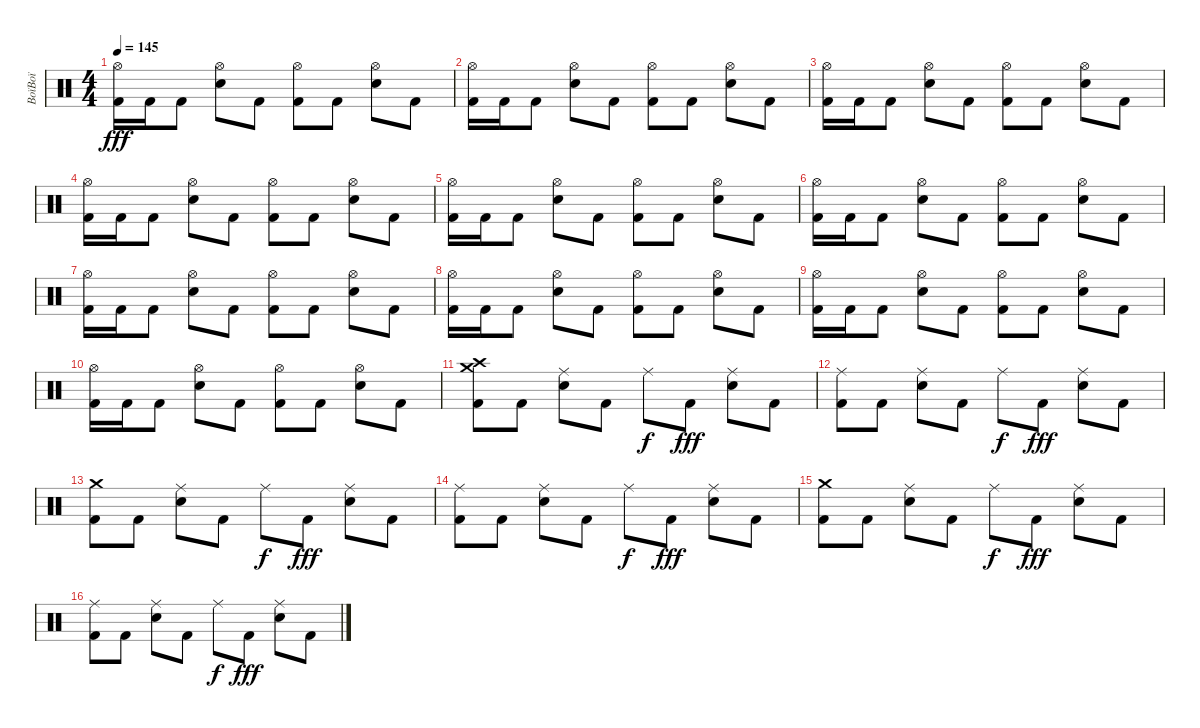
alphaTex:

\track ("BoïBoï" "BoïBoï") {instrument percussion}
\staff {score}
\articulation defaults
\ts (4 4)
\tempo 145
\clef neutral
\ks c
("Hi-Hat (open)" "Kick (hit) 2").16{dy fff} "Kick (hit) 2".16 "Kick (hit) 2".8 ("Hi-Hat (open)" "Electric Snare (hit)").8 "Kick (hit) 2".8 ("Hi-Hat (open)" "Kick (hit) 2").8 "Kick (hit) 2".8 ("Hi-Hat (open)" "Electric Snare (hit)").8 "Kick (hit) 2".8 |
("Hi-Hat (open)" "Kick (hit) 2").16 "Kick (hit) 2".16 "Kick (hit) 2".8 ("Hi-Hat (open)" "Electric Snare (hit)").8 "Kick (hit) 2".8 ("Hi-Hat (open)" "Kick (hit) 2").8 "Kick (hit) 2".8 ("Hi-Hat (open)" "Electric Snare (hit)").8 "Kick (hit) 2".8 |
("Hi-Hat (open)" "Kick (hit) 2").16 "Kick (hit) 2".16 "Kick (hit) 2".8 ("Hi-Hat (open)" "Electric Snare (hit)").8 "Kick (hit) 2".8 ("Hi-Hat (open)" "Kick (hit) 2").8 "Kick (hit) 2".8 ("Hi-Hat (open)" "Electric Snare (hit)").8 "Kick (hit) 2".8 |
("Hi-Hat (open)" "Kick (hit) 2").16 "Kick (hit) 2".16 "Kick (hit) 2".8 ("Hi-Hat (open)" "Electric Snare (hit)").8 "Kick (hit) 2".8 ("Hi-Hat (open)" "Kick (hit) 2").8 "Kick (hit) 2".8 ("Hi-Hat (open)" "Electric Snare (hit)").8 "Kick (hit) 2".8 |
("Hi-Hat (open)" "Kick (hit) 2").16 "Kick (hit) 2".16 "Kick (hit) 2".8 ("Hi-Hat (open)" "Electric Snare (hit)").8 "Kick (hit) 2".8 ("Hi-Hat (open)" "Kick (hit) 2").8 "Kick (hit) 2".8 ("Hi-Hat (open)" "Electric Snare (hit)").8 "Kick (hit) 2".8 |
("Hi-Hat (open)" "Kick (hit) 2").16 "Kick (hit) 2".16 "Kick (hit) 2".8 ("Hi-Hat (open)" "Electric Snare (hit)").8 "Kick (hit) 2".8 ("Hi-Hat (open)" "Kick (hit) 2").8 "Kick (hit) 2".8 ("Hi-Hat (open)" "Electric Snare (hit)").8 "Kick (hit) 2".8 |
("Hi-Hat (open)" "Kick (hit) 2").16 "Kick (hit) 2".16 "Kick (hit) 2".8 ("Hi-Hat (open)" "Electric Snare (hit)").8 "Kick (hit) 2".8 ("Hi-Hat (open)" "Kick (hit) 2").8 "Kick (hit) 2".8 ("Hi-Hat (open)" "Electric Snare (hit)").8 "Kick (hit) 2".8 |
("Hi-Hat (open)" "Kick (hit) 2").16 "Kick (hit) 2".16 "Kick (hit) 2".8 ("Hi-Hat (open)" "Electric Snare (hit)").8 "Kick (hit) 2".8 ("Hi-Hat (open)" "Kick (hit) 2").8 "Kick (hit) 2".8 ("Hi-Hat (open)" "Electric Snare (hit)").8 "Kick (hit) 2".8 |
("Hi-Hat (open)" "Kick (hit) 2").16 "Kick (hit) 2".16 "Kick (hit) 2".8 ("Hi-Hat (open)" "Electric Snare (hit)").8 "Kick (hit) 2".8 ("Hi-Hat (open)" "Kick (hit) 2").8 "Kick (hit) 2".8 ("Hi-Hat (open)" "Electric Snare (hit)").8 "Kick (hit) 2".8 |
("Hi-Hat (open)" "Kick (hit) 2").16 "Kick (hit) 2".16 "Kick (hit) 2".8 ("Hi-Hat (open)" "Electric Snare (hit)").8 "Kick (hit) 2".8 ("Hi-Hat (open)" "Kick (hit) 2").8 "Kick (hit) 2".8 ("Hi-Hat (open)" "Electric Snare (hit)").8 "Kick (hit) 2".8 |
("Crash medium (hit)" "Crash high (hit)" "Kick (hit) 2").8 "Kick (hit) 2".8 ("Ride (middle)" "Electric Snare (hit)").8 "Kick (hit) 2".8 "Ride (middle)".8{dy f} "Kick (hit) 2".8{dy fff} ("Ride (middle)" "Electric Snare (hit)").8 "Kick (hit) 2".8 |
("Ride (middle)" "Kick (hit) 2").8 "Kick (hit) 2".8 ("Ride (middle)" "Electric Snare (hit)").8 "Kick (hit) 2".8 "Ride (middle)".8{dy f} "Kick (hit) 2".8{dy fff} ("Ride (middle)" "Electric Snare (hit)").8 "Kick (hit) 2".8 |
("Crash medium (hit)" "Kick (hit) 2").8 "Kick (hit) 2".8 ("Ride (middle)" "Electric Snare (hit)").8 "Kick (hit) 2".8 "Ride (middle)".8{dy f} "Kick (hit) 2".8{dy fff} ("Ride (middle)" "Electric Snare (hit)").8 "Kick (hit) 2".8 |
("Ride (middle)" "Kick (hit) 2").8 "Kick (hit) 2".8 ("Ride (middle)" "Electric Snare (hit)").8 "Kick (hit) 2".8 "Ride (middle)".8{dy f} "Kick (hit) 2".8{dy fff} ("Ride (middle)" "Electric Snare (hit)").8 "Kick (hit) 2".8 |
("Crash medium (hit)" "Kick (hit) 2").8 "Kick (hit) 2".8 ("Ride (middle)" "Electric Snare (hit)").8 "Kick (hit) 2".8 "Ride (middle)".8{dy f} "Kick (hit) 2".8{dy fff} ("Ride (middle)" "Electric Snare (hit)").8 "Kick (hit) 2".8 |
("Ride (middle)" "Kick (hit) 2").8 "Kick (hit) 2".8 ("Ride (middle)" "Electric Snare (hit)").8 "Kick (hit) 2".8 "Ride (middle)".8{dy f} "Kick (hit) 2".8{dy fff} ("Ride (middle)" "Electric Snare (hit)").8 "Kick (hit) 2".8
